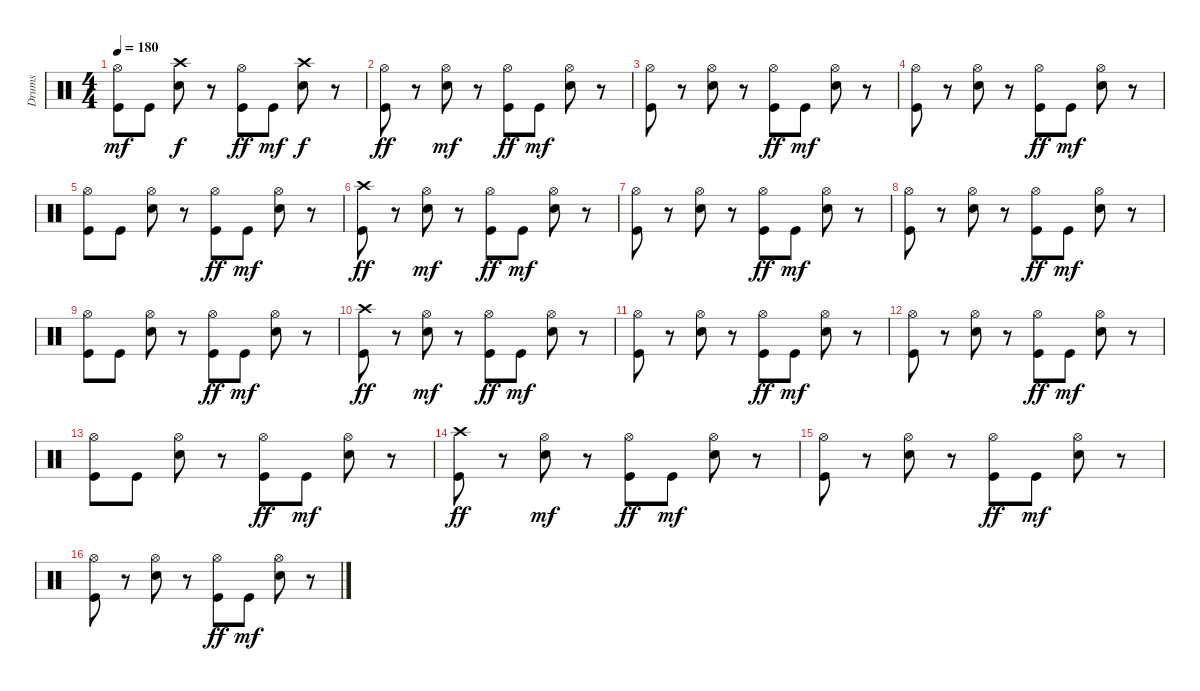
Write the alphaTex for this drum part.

\track ("Drums" "Drums") {instrument percussion}
\staff {score}
\articulation defaults
\ts (4 4)
\tempo 180
\clef neutral
\ks c
("Kick (hit)" "Hi-Hat (open)").8{dy mf} "Kick (hit)".8 ("Crash high (hit)" "Snare (hit) 2").8{dy f} r.8 ("Hi-Hat (open)" "Kick (hit)").8{dy ff} "Kick (hit)".8{dy mf} ("Crash high (hit)" "Snare (hit) 2").8{dy f} r.8 |
("Hi-Hat (open)" "Kick (hit)").8{dy ff} r.8 ("Hi-Hat (open)" "Snare (hit) 2").8{dy mf} r.8 ("Hi-Hat (open)" "Kick (hit)").8{dy ff} "Kick (hit)".8{dy mf} ("Hi-Hat (open)" "Snare (hit) 2").8 r.8 |
("Kick (hit)" "Hi-Hat (open)").8 r.8 ("Hi-Hat (open)" "Snare (hit) 2").8 r.8 ("Hi-Hat (open)" "Kick (hit)").8{dy ff} "Kick (hit)".8{dy mf} ("Snare (hit) 2" "Hi-Hat (open)").8 r.8 |
("Kick (hit)" "Hi-Hat (open)").8 r.8 ("Hi-Hat (open)" "Snare (hit) 2").8 r.8 ("Hi-Hat (open)" "Kick (hit)").8{dy ff} "Kick (hit)".8{dy mf} ("Snare (hit) 2" "Hi-Hat (open)").8 r.8 |
("Kick (hit)" "Hi-Hat (open)").8 "Kick (hit)".8 ("Hi-Hat (open)" "Snare (hit) 2").8 r.8 ("Hi-Hat (open)" "Kick (hit)").8{dy ff} "Kick (hit)".8{dy mf} ("Hi-Hat (open)" "Snare (hit) 2").8 r.8 |
("Crash high (hit)" "Kick (hit)").8{dy ff} r.8 ("Hi-Hat (open)" "Snare (hit) 2").8{dy mf} r.8 ("Hi-Hat (open)" "Kick (hit)").8{dy ff} "Kick (hit)".8{dy mf} ("Hi-Hat (open)" "Snare (hit) 2").8 r.8 |
("Kick (hit)" "Hi-Hat (open)").8 r.8 ("Hi-Hat (open)" "Snare (hit) 2").8 r.8 ("Hi-Hat (open)" "Kick (hit)").8{dy ff} "Kick (hit)".8{dy mf} ("Snare (hit) 2" "Hi-Hat (open)").8 r.8 |
("Kick (hit)" "Hi-Hat (open)").8 r.8 ("Hi-Hat (open)" "Snare (hit) 2").8 r.8 ("Hi-Hat (open)" "Kick (hit)").8{dy ff} "Kick (hit)".8{dy mf} ("Snare (hit) 2" "Hi-Hat (open)").8 r.8 |
("Kick (hit)" "Hi-Hat (open)").8 "Kick (hit)".8 ("Hi-Hat (open)" "Snare (hit) 2").8 r.8 ("Hi-Hat (open)" "Kick (hit)").8{dy ff} "Kick (hit)".8{dy mf} ("Hi-Hat (open)" "Snare (hit) 2").8 r.8 |
("Crash high (hit)" "Kick (hit)").8{dy ff} r.8 ("Hi-Hat (open)" "Snare (hit) 2").8{dy mf} r.8 ("Hi-Hat (open)" "Kick (hit)").8{dy ff} "Kick (hit)".8{dy mf} ("Hi-Hat (open)" "Snare (hit) 2").8 r.8 |
("Kick (hit)" "Hi-Hat (open)").8 r.8 ("Hi-Hat (open)" "Snare (hit) 2").8 r.8 ("Hi-Hat (open)" "Kick (hit)").8{dy ff} "Kick (hit)".8{dy mf} ("Snare (hit) 2" "Hi-Hat (open)").8 r.8 |
("Kick (hit)" "Hi-Hat (open)").8 r.8 ("Hi-Hat (open)" "Snare (hit) 2").8 r.8 ("Hi-Hat (open)" "Kick (hit)").8{dy ff} "Kick (hit)".8{dy mf} ("Snare (hit) 2" "Hi-Hat (open)").8 r.8 |
("Kick (hit)" "Hi-Hat (open)").8 "Kick (hit)".8 ("Hi-Hat (open)" "Snare (hit) 2").8 r.8 ("Hi-Hat (open)" "Kick (hit)").8{dy ff} "Kick (hit)".8{dy mf} ("Hi-Hat (open)" "Snare (hit) 2").8 r.8 |
("Crash high (hit)" "Kick (hit)").8{dy ff} r.8 ("Hi-Hat (open)" "Snare (hit) 2").8{dy mf} r.8 ("Hi-Hat (open)" "Kick (hit)").8{dy ff} "Kick (hit)".8{dy mf} ("Hi-Hat (open)" "Snare (hit) 2").8 r.8 |
("Kick (hit)" "Hi-Hat (open)").8 r.8 ("Hi-Hat (open)" "Snare (hit) 2").8 r.8 ("Hi-Hat (open)" "Kick (hit)").8{dy ff} "Kick (hit)".8{dy mf} ("Snare (hit) 2" "Hi-Hat (open)").8 r.8 |
("Kick (hit)" "Hi-Hat (open)").8 r.8 ("Hi-Hat (open)" "Snare (hit) 2").8 r.8 ("Hi-Hat (open)" "Kick (hit)").8{dy ff} "Kick (hit)".8{dy mf} ("Snare (hit) 2" "Hi-Hat (open)").8 r.8
